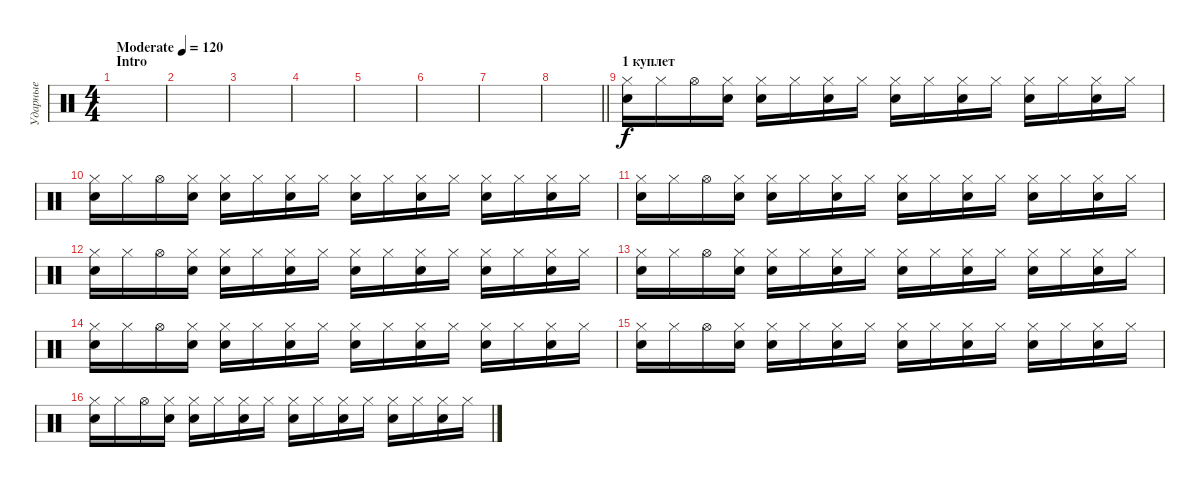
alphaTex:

\track ("Ударные" "Ударные") {instrument percussion}
\staff {score}
\articulation defaults
\ts (4 4)
\section ("" "Intro")
\tempo (120 "Moderate")
\clef neutral
\ks c
|
|
|
|
|
|
|
\barLineRight lightlight
|
\section ("" "1 куплет")
("Hi-Hat (closed)" "Snare (hit) 2").16 "Hi-Hat (closed)".16 "Hi-Hat (open)".16 ("Hi-Hat (closed)" "Snare (hit) 2").16 ("Hi-Hat (closed)" "Snare (hit) 2").16 "Hi-Hat (closed)".16 ("Hi-Hat (closed)" "Snare (hit) 2").16 "Hi-Hat (closed)".16 ("Hi-Hat (closed)" "Snare (hit) 2").16 "Hi-Hat (closed)".16 ("Hi-Hat (closed)" "Snare (hit) 2").16 "Hi-Hat (closed)".16 ("Hi-Hat (closed)" "Snare (hit) 2").16 "Hi-Hat (closed)".16 ("Hi-Hat (closed)" "Snare (hit) 2").16 "Hi-Hat (closed)".16 |
("Hi-Hat (closed)" "Snare (hit) 2").16 "Hi-Hat (closed)".16 "Hi-Hat (open)".16 ("Hi-Hat (closed)" "Snare (hit) 2").16 ("Hi-Hat (closed)" "Snare (hit) 2").16 "Hi-Hat (closed)".16 ("Hi-Hat (closed)" "Snare (hit) 2").16 "Hi-Hat (closed)".16 ("Hi-Hat (closed)" "Snare (hit) 2").16 "Hi-Hat (closed)".16 ("Hi-Hat (closed)" "Snare (hit) 2").16 "Hi-Hat (closed)".16 ("Hi-Hat (closed)" "Snare (hit) 2").16 "Hi-Hat (closed)".16 ("Hi-Hat (closed)" "Snare (hit) 2").16 "Hi-Hat (closed)".16 |
("Hi-Hat (closed)" "Snare (hit) 2").16 "Hi-Hat (closed)".16 "Hi-Hat (open)".16 ("Hi-Hat (closed)" "Snare (hit) 2").16 ("Hi-Hat (closed)" "Snare (hit) 2").16 "Hi-Hat (closed)".16 ("Hi-Hat (closed)" "Snare (hit) 2").16 "Hi-Hat (closed)".16 ("Hi-Hat (closed)" "Snare (hit) 2").16 "Hi-Hat (closed)".16 ("Hi-Hat (closed)" "Snare (hit) 2").16 "Hi-Hat (closed)".16 ("Hi-Hat (closed)" "Snare (hit) 2").16 "Hi-Hat (closed)".16 ("Hi-Hat (closed)" "Snare (hit) 2").16 "Hi-Hat (closed)".16 |
("Hi-Hat (closed)" "Snare (hit) 2").16 "Hi-Hat (closed)".16 "Hi-Hat (open)".16 ("Hi-Hat (closed)" "Snare (hit) 2").16 ("Hi-Hat (closed)" "Snare (hit) 2").16 "Hi-Hat (closed)".16 ("Hi-Hat (closed)" "Snare (hit) 2").16 "Hi-Hat (closed)".16 ("Hi-Hat (closed)" "Snare (hit) 2").16 "Hi-Hat (closed)".16 ("Hi-Hat (closed)" "Snare (hit) 2").16 "Hi-Hat (closed)".16 ("Hi-Hat (closed)" "Snare (hit) 2").16 "Hi-Hat (closed)".16 ("Hi-Hat (closed)" "Snare (hit) 2").16 "Hi-Hat (closed)".16 |
("Hi-Hat (closed)" "Snare (hit) 2").16 "Hi-Hat (closed)".16 "Hi-Hat (open)".16 ("Hi-Hat (closed)" "Snare (hit) 2").16 ("Hi-Hat (closed)" "Snare (hit) 2").16 "Hi-Hat (closed)".16 ("Hi-Hat (closed)" "Snare (hit) 2").16 "Hi-Hat (closed)".16 ("Hi-Hat (closed)" "Snare (hit) 2").16 "Hi-Hat (closed)".16 ("Hi-Hat (closed)" "Snare (hit) 2").16 "Hi-Hat (closed)".16 ("Hi-Hat (closed)" "Snare (hit) 2").16 "Hi-Hat (closed)".16 ("Hi-Hat (closed)" "Snare (hit) 2").16 "Hi-Hat (closed)".16 |
("Hi-Hat (closed)" "Snare (hit) 2").16 "Hi-Hat (closed)".16 "Hi-Hat (open)".16 ("Hi-Hat (closed)" "Snare (hit) 2").16 ("Hi-Hat (closed)" "Snare (hit) 2").16 "Hi-Hat (closed)".16 ("Hi-Hat (closed)" "Snare (hit) 2").16 "Hi-Hat (closed)".16 ("Hi-Hat (closed)" "Snare (hit) 2").16 "Hi-Hat (closed)".16 ("Hi-Hat (closed)" "Snare (hit) 2").16 "Hi-Hat (closed)".16 ("Hi-Hat (closed)" "Snare (hit) 2").16 "Hi-Hat (closed)".16 ("Hi-Hat (closed)" "Snare (hit) 2").16 "Hi-Hat (closed)".16 |
("Hi-Hat (closed)" "Snare (hit) 2").16 "Hi-Hat (closed)".16 "Hi-Hat (open)".16 ("Hi-Hat (closed)" "Snare (hit) 2").16 ("Hi-Hat (closed)" "Snare (hit) 2").16 "Hi-Hat (closed)".16 ("Hi-Hat (closed)" "Snare (hit) 2").16 "Hi-Hat (closed)".16 ("Hi-Hat (closed)" "Snare (hit) 2").16 "Hi-Hat (closed)".16 ("Hi-Hat (closed)" "Snare (hit) 2").16 "Hi-Hat (closed)".16 ("Hi-Hat (closed)" "Snare (hit) 2").16 "Hi-Hat (closed)".16 ("Hi-Hat (closed)" "Snare (hit) 2").16 "Hi-Hat (closed)".16 |
("Hi-Hat (closed)" "Snare (hit) 2").16 "Hi-Hat (closed)".16 "Hi-Hat (open)".16 ("Hi-Hat (closed)" "Snare (hit) 2").16 ("Hi-Hat (closed)" "Snare (hit) 2").16 "Hi-Hat (closed)".16 ("Hi-Hat (closed)" "Snare (hit) 2").16 "Hi-Hat (closed)".16 ("Hi-Hat (closed)" "Snare (hit) 2").16 "Hi-Hat (closed)".16 ("Hi-Hat (closed)" "Snare (hit) 2").16 "Hi-Hat (closed)".16 ("Hi-Hat (closed)" "Snare (hit) 2").16 "Hi-Hat (closed)".16 ("Hi-Hat (closed)" "Snare (hit) 2").16 "Hi-Hat (closed)".16
